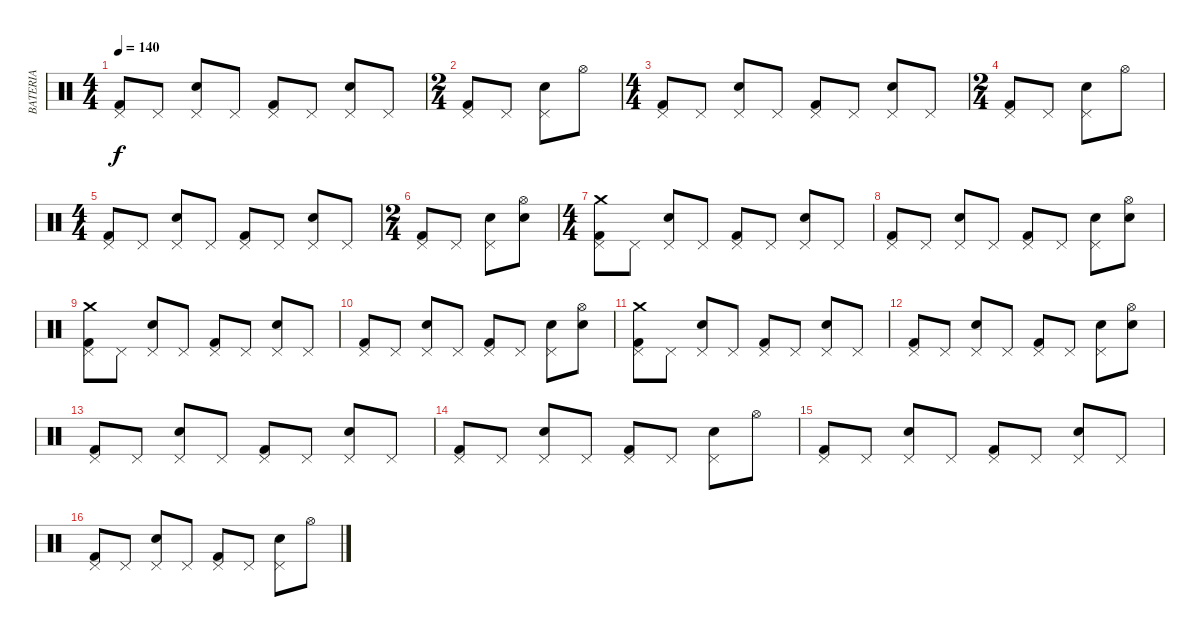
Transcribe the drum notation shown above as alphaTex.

\track ("BATERIA" "BATERIA") {instrument percussion}
\staff {score}
\articulation defaults
\ts (4 4)
\tempo 140
\clef neutral
\ks c
("Kick (hit) 2" "Pedal Hi-Hat (hit)").8{dy f} "Pedal Hi-Hat (hit)".8 ("Snare (hit) 2" "Pedal Hi-Hat (hit)").8 "Pedal Hi-Hat (hit)".8 ("Kick (hit) 2" "Pedal Hi-Hat (hit)").8 "Pedal Hi-Hat (hit)".8 ("Snare (hit) 2" "Pedal Hi-Hat (hit)").8 "Pedal Hi-Hat (hit)".8 |
\ts (2 4)
("Kick (hit) 2" "Pedal Hi-Hat (hit)").8 "Pedal Hi-Hat (hit)".8 ("Snare (hit) 2" "Pedal Hi-Hat (hit)").8 "Hi-Hat (open)".8 |
\ts (4 4)
("Kick (hit) 2" "Pedal Hi-Hat (hit)").8 "Pedal Hi-Hat (hit)".8 ("Snare (hit) 2" "Pedal Hi-Hat (hit)").8 "Pedal Hi-Hat (hit)".8 ("Kick (hit) 2" "Pedal Hi-Hat (hit)").8 "Pedal Hi-Hat (hit)".8 ("Snare (hit) 2" "Pedal Hi-Hat (hit)").8 "Pedal Hi-Hat (hit)".8 |
\ts (2 4)
("Kick (hit) 2" "Pedal Hi-Hat (hit)").8 "Pedal Hi-Hat (hit)".8 ("Snare (hit) 2" "Pedal Hi-Hat (hit)").8 "Hi-Hat (open)".8 |
\ts (4 4)
("Kick (hit) 2" "Pedal Hi-Hat (hit)").8 "Pedal Hi-Hat (hit)".8 ("Snare (hit) 2" "Pedal Hi-Hat (hit)").8 "Pedal Hi-Hat (hit)".8 ("Kick (hit) 2" "Pedal Hi-Hat (hit)").8 "Pedal Hi-Hat (hit)".8 ("Snare (hit) 2" "Pedal Hi-Hat (hit)").8 "Pedal Hi-Hat (hit)".8 |
\ts (2 4)
("Kick (hit) 2" "Pedal Hi-Hat (hit)").8 "Pedal Hi-Hat (hit)".8 ("Snare (hit) 2" "Pedal Hi-Hat (hit)").8 ("Snare (hit) 2" "Hi-Hat (open)").8 |
\ts (4 4)
("Kick (hit) 2" "Pedal Hi-Hat (hit)" "Crash medium (hit)").8 "Pedal Hi-Hat (hit)".8 ("Snare (hit) 2" "Pedal Hi-Hat (hit)").8 "Pedal Hi-Hat (hit)".8 ("Kick (hit) 2" "Pedal Hi-Hat (hit)").8 "Pedal Hi-Hat (hit)".8 ("Snare (hit) 2" "Pedal Hi-Hat (hit)").8 "Pedal Hi-Hat (hit)".8 |
("Kick (hit) 2" "Pedal Hi-Hat (hit)").8 "Pedal Hi-Hat (hit)".8 ("Snare (hit) 2" "Pedal Hi-Hat (hit)").8 "Pedal Hi-Hat (hit)".8 ("Kick (hit) 2" "Pedal Hi-Hat (hit)").8 "Pedal Hi-Hat (hit)".8 ("Snare (hit) 2" "Pedal Hi-Hat (hit)").8 ("Snare (hit) 2" "Hi-Hat (open)").8 |
("Kick (hit) 2" "Pedal Hi-Hat (hit)" "Crash medium (hit)").8 "Pedal Hi-Hat (hit)".8 ("Snare (hit) 2" "Pedal Hi-Hat (hit)").8 "Pedal Hi-Hat (hit)".8 ("Kick (hit) 2" "Pedal Hi-Hat (hit)").8 "Pedal Hi-Hat (hit)".8 ("Snare (hit) 2" "Pedal Hi-Hat (hit)").8 "Pedal Hi-Hat (hit)".8 |
("Kick (hit) 2" "Pedal Hi-Hat (hit)").8 "Pedal Hi-Hat (hit)".8 ("Snare (hit) 2" "Pedal Hi-Hat (hit)").8 "Pedal Hi-Hat (hit)".8 ("Kick (hit) 2" "Pedal Hi-Hat (hit)").8 "Pedal Hi-Hat (hit)".8 ("Snare (hit) 2" "Pedal Hi-Hat (hit)").8 ("Snare (hit) 2" "Hi-Hat (open)").8 |
("Kick (hit) 2" "Pedal Hi-Hat (hit)" "Crash medium (hit)").8 "Pedal Hi-Hat (hit)".8 ("Snare (hit) 2" "Pedal Hi-Hat (hit)").8 "Pedal Hi-Hat (hit)".8 ("Kick (hit) 2" "Pedal Hi-Hat (hit)").8 "Pedal Hi-Hat (hit)".8 ("Snare (hit) 2" "Pedal Hi-Hat (hit)").8 "Pedal Hi-Hat (hit)".8 |
("Kick (hit) 2" "Pedal Hi-Hat (hit)").8 "Pedal Hi-Hat (hit)".8 ("Snare (hit) 2" "Pedal Hi-Hat (hit)").8 "Pedal Hi-Hat (hit)".8 ("Kick (hit) 2" "Pedal Hi-Hat (hit)").8 "Pedal Hi-Hat (hit)".8 ("Snare (hit) 2" "Pedal Hi-Hat (hit)").8 ("Snare (hit) 2" "Hi-Hat (open)").8 |
("Kick (hit) 2" "Pedal Hi-Hat (hit)").8 "Pedal Hi-Hat (hit)".8 ("Snare (hit) 2" "Pedal Hi-Hat (hit)").8 "Pedal Hi-Hat (hit)".8 ("Kick (hit) 2" "Pedal Hi-Hat (hit)").8 "Pedal Hi-Hat (hit)".8 ("Snare (hit) 2" "Pedal Hi-Hat (hit)").8 "Pedal Hi-Hat (hit)".8 |
("Kick (hit) 2" "Pedal Hi-Hat (hit)").8 "Pedal Hi-Hat (hit)".8 ("Snare (hit) 2" "Pedal Hi-Hat (hit)").8 "Pedal Hi-Hat (hit)".8 ("Kick (hit) 2" "Pedal Hi-Hat (hit)").8 "Pedal Hi-Hat (hit)".8 ("Snare (hit) 2" "Pedal Hi-Hat (hit)").8 "Hi-Hat (open)".8 |
("Kick (hit) 2" "Pedal Hi-Hat (hit)").8 "Pedal Hi-Hat (hit)".8 ("Snare (hit) 2" "Pedal Hi-Hat (hit)").8 "Pedal Hi-Hat (hit)".8 ("Kick (hit) 2" "Pedal Hi-Hat (hit)").8 "Pedal Hi-Hat (hit)".8 ("Snare (hit) 2" "Pedal Hi-Hat (hit)").8 "Pedal Hi-Hat (hit)".8 |
("Kick (hit) 2" "Pedal Hi-Hat (hit)").8 "Pedal Hi-Hat (hit)".8 ("Snare (hit) 2" "Pedal Hi-Hat (hit)").8 "Pedal Hi-Hat (hit)".8 ("Kick (hit) 2" "Pedal Hi-Hat (hit)").8 "Pedal Hi-Hat (hit)".8 ("Snare (hit) 2" "Pedal Hi-Hat (hit)").8 "Hi-Hat (open)".8
